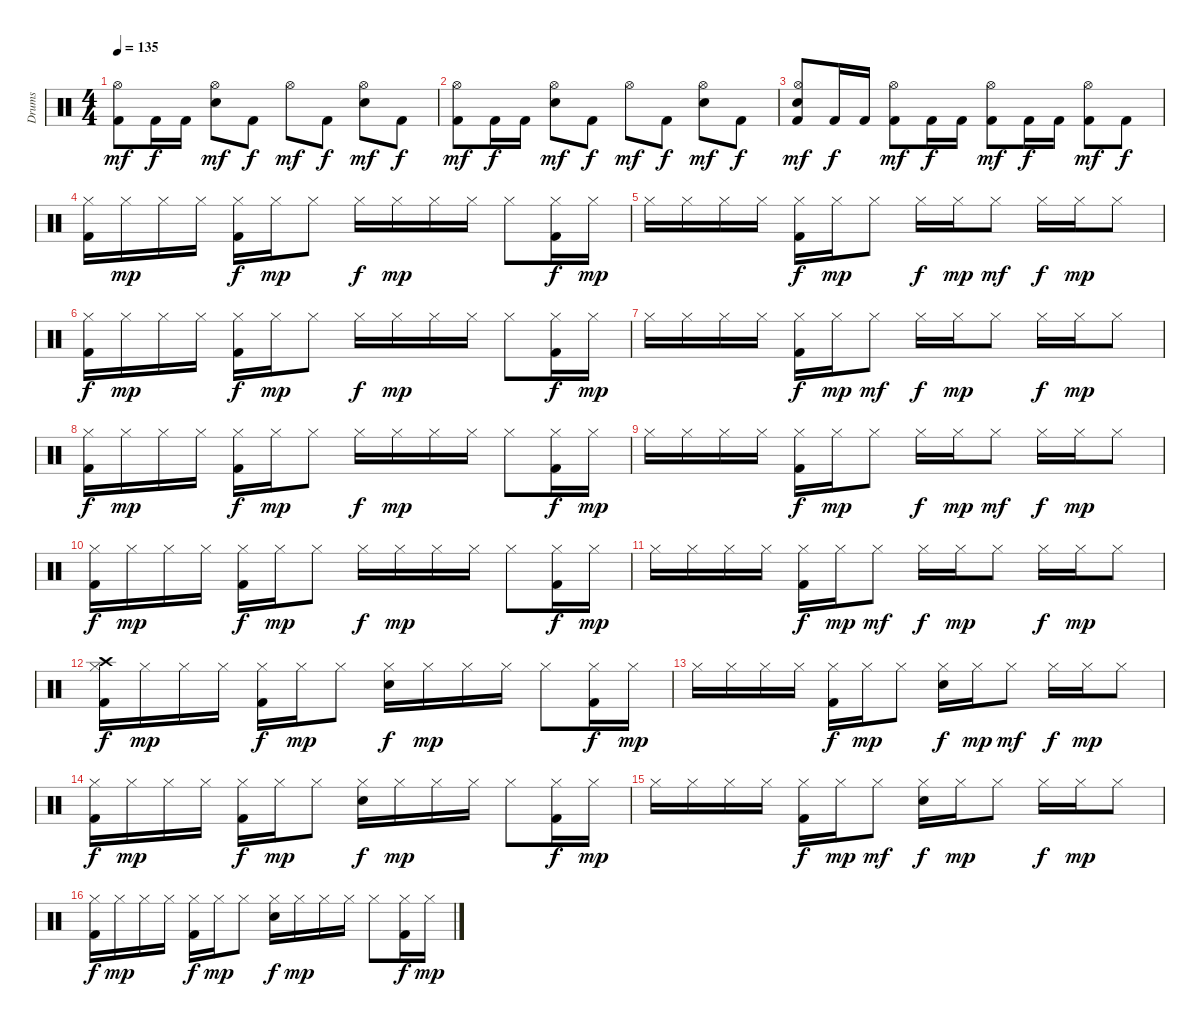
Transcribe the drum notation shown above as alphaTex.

\track ("Drums" "Drums") {instrument percussion}
\staff {score}
\articulation defaults
\ts (4 4)
\tempo 135
\clef neutral
\ks c
("Kick (hit) 2" "Hi-Hat (open)").8{dy mf} "Kick (hit) 2".16{dy f} "Kick (hit) 2".16 ("Electric Snare (hit)" "Hi-Hat (open)").8{dy mf} "Kick (hit) 2".8{dy f} "Hi-Hat (open)".8{dy mf} "Kick (hit) 2".8{dy f} ("Electric Snare (hit)" "Hi-Hat (open)").8{dy mf} "Kick (hit) 2".8{dy f} |
("Kick (hit) 2" "Hi-Hat (open)").8{dy mf} "Kick (hit) 2".16{dy f} "Kick (hit) 2".16 ("Electric Snare (hit)" "Hi-Hat (open)").8{dy mf} "Kick (hit) 2".8{dy f} "Hi-Hat (open)".8{dy mf} "Kick (hit) 2".8{dy f} ("Electric Snare (hit)" "Hi-Hat (open)").8{dy mf} "Kick (hit) 2".8{dy f} |
("Kick (hit) 2" "Electric Snare (hit)" "Hi-Hat (open)").8{dy mf} "Kick (hit) 2".16{dy f} "Kick (hit) 2".16 ("Kick (hit) 2" "Hi-Hat (open)").8{dy mf} "Kick (hit) 2".16{dy f} "Kick (hit) 2".16 ("Kick (hit) 2" "Hi-Hat (open)").8{dy mf} "Kick (hit) 2".16{dy f} "Kick (hit) 2".16 ("Kick (hit) 2" "Hi-Hat (open)").8{dy mf} "Kick (hit) 2".8{dy f} |
("Kick (hit) 2" "Hi-Hat (closed)").16 "Hi-Hat (closed)".16{dy mp} "Hi-Hat (closed)".16 "Hi-Hat (closed)".16 ("Kick (hit) 2" "Hi-Hat (closed)").16{dy f} "Hi-Hat (closed)".16{dy mp} "Hi-Hat (closed)".8 "Hi-Hat (closed)".16{dy f} "Hi-Hat (closed)".16{dy mp} "Hi-Hat (closed)".16 "Hi-Hat (closed)".16 "Hi-Hat (closed)".8 ("Kick (hit) 2" "Hi-Hat (closed)").16{dy f} "Hi-Hat (closed)".16{dy mp} |
"Hi-Hat (closed)".16 "Hi-Hat (closed)".16 "Hi-Hat (closed)".16 "Hi-Hat (closed)".16 ("Kick (hit) 2" "Hi-Hat (closed)").16{dy f} "Hi-Hat (closed)".16{dy mp} "Hi-Hat (closed)".8 "Hi-Hat (closed)".16{dy f} "Hi-Hat (closed)".16{dy mp} "Hi-Hat (closed)".8{dy mf} "Hi-Hat (closed)".16{dy f} "Hi-Hat (closed)".16{dy mp} "Hi-Hat (closed)".8 |
("Kick (hit) 2" "Hi-Hat (closed)").16{dy f} "Hi-Hat (closed)".16{dy mp} "Hi-Hat (closed)".16 "Hi-Hat (closed)".16 ("Kick (hit) 2" "Hi-Hat (closed)").16{dy f} "Hi-Hat (closed)".16{dy mp} "Hi-Hat (closed)".8 "Hi-Hat (closed)".16{dy f} "Hi-Hat (closed)".16{dy mp} "Hi-Hat (closed)".16 "Hi-Hat (closed)".16 "Hi-Hat (closed)".8 ("Kick (hit) 2" "Hi-Hat (closed)").16{dy f} "Hi-Hat (closed)".16{dy mp} |
"Hi-Hat (closed)".16 "Hi-Hat (closed)".16 "Hi-Hat (closed)".16 "Hi-Hat (closed)".16 ("Kick (hit) 2" "Hi-Hat (closed)").16{dy f} "Hi-Hat (closed)".16{dy mp} "Hi-Hat (closed)".8{dy mf} "Hi-Hat (closed)".16{dy f} "Hi-Hat (closed)".16{dy mp} "Hi-Hat (closed)".8 "Hi-Hat (closed)".16{dy f} "Hi-Hat (closed)".16{dy mp} "Hi-Hat (closed)".8 |
("Kick (hit) 2" "Hi-Hat (closed)").16{dy f} "Hi-Hat (closed)".16{dy mp} "Hi-Hat (closed)".16 "Hi-Hat (closed)".16 ("Kick (hit) 2" "Hi-Hat (closed)").16{dy f} "Hi-Hat (closed)".16{dy mp} "Hi-Hat (closed)".8 "Hi-Hat (closed)".16{dy f} "Hi-Hat (closed)".16{dy mp} "Hi-Hat (closed)".16 "Hi-Hat (closed)".16 "Hi-Hat (closed)".8 ("Kick (hit) 2" "Hi-Hat (closed)").16{dy f} "Hi-Hat (closed)".16{dy mp} |
"Hi-Hat (closed)".16 "Hi-Hat (closed)".16 "Hi-Hat (closed)".16 "Hi-Hat (closed)".16 ("Kick (hit) 2" "Hi-Hat (closed)").16{dy f} "Hi-Hat (closed)".16{dy mp} "Hi-Hat (closed)".8 "Hi-Hat (closed)".16{dy f} "Hi-Hat (closed)".16{dy mp} "Hi-Hat (closed)".8{dy mf} "Hi-Hat (closed)".16{dy f} "Hi-Hat (closed)".16{dy mp} "Hi-Hat (closed)".8 |
("Kick (hit) 2" "Hi-Hat (closed)").16{dy f} "Hi-Hat (closed)".16{dy mp} "Hi-Hat (closed)".16 "Hi-Hat (closed)".16 ("Kick (hit) 2" "Hi-Hat (closed)").16{dy f} "Hi-Hat (closed)".16{dy mp} "Hi-Hat (closed)".8 "Hi-Hat (closed)".16{dy f} "Hi-Hat (closed)".16{dy mp} "Hi-Hat (closed)".16 "Hi-Hat (closed)".16 "Hi-Hat (closed)".8 ("Kick (hit) 2" "Hi-Hat (closed)").16{dy f} "Hi-Hat (closed)".16{dy mp} |
"Hi-Hat (closed)".16 "Hi-Hat (closed)".16 "Hi-Hat (closed)".16 "Hi-Hat (closed)".16 ("Kick (hit) 2" "Hi-Hat (closed)").16{dy f} "Hi-Hat (closed)".16{dy mp} "Hi-Hat (closed)".8{dy mf} "Hi-Hat (closed)".16{dy f} "Hi-Hat (closed)".16{dy mp} "Hi-Hat (closed)".8 "Hi-Hat (closed)".16{dy f} "Hi-Hat (closed)".16{dy mp} "Hi-Hat (closed)".8 |
("Kick (hit) 2" "Hi-Hat (closed)" "Crash high (hit)").16{dy f} "Hi-Hat (closed)".16{dy mp} "Hi-Hat (closed)".16 "Hi-Hat (closed)".16 ("Kick (hit) 2" "Hi-Hat (closed)").16{dy f} "Hi-Hat (closed)".16{dy mp} "Hi-Hat (closed)".8 ("Electric Snare (hit)" "Hi-Hat (closed)").16{dy f} "Hi-Hat (closed)".16{dy mp} "Hi-Hat (closed)".16 "Hi-Hat (closed)".16 "Hi-Hat (closed)".8 ("Kick (hit) 2" "Hi-Hat (closed)").16{dy f} "Hi-Hat (closed)".16{dy mp} |
"Hi-Hat (closed)".16 "Hi-Hat (closed)".16 "Hi-Hat (closed)".16 "Hi-Hat (closed)".16 ("Kick (hit) 2" "Hi-Hat (closed)").16{dy f} "Hi-Hat (closed)".16{dy mp} "Hi-Hat (closed)".8 ("Electric Snare (hit)" "Hi-Hat (closed)").16{dy f} "Hi-Hat (closed)".16{dy mp} "Hi-Hat (closed)".8{dy mf} "Hi-Hat (closed)".16{dy f} "Hi-Hat (closed)".16{dy mp} "Hi-Hat (closed)".8 |
("Kick (hit) 2" "Hi-Hat (closed)").16{dy f} "Hi-Hat (closed)".16{dy mp} "Hi-Hat (closed)".16 "Hi-Hat (closed)".16 ("Kick (hit) 2" "Hi-Hat (closed)").16{dy f} "Hi-Hat (closed)".16{dy mp} "Hi-Hat (closed)".8 ("Electric Snare (hit)" "Hi-Hat (closed)").16{dy f} "Hi-Hat (closed)".16{dy mp} "Hi-Hat (closed)".16 "Hi-Hat (closed)".16 "Hi-Hat (closed)".8 ("Kick (hit) 2" "Hi-Hat (closed)").16{dy f} "Hi-Hat (closed)".16{dy mp} |
"Hi-Hat (closed)".16 "Hi-Hat (closed)".16 "Hi-Hat (closed)".16 "Hi-Hat (closed)".16 ("Kick (hit) 2" "Hi-Hat (closed)").16{dy f} "Hi-Hat (closed)".16{dy mp} "Hi-Hat (closed)".8{dy mf} ("Electric Snare (hit)" "Hi-Hat (closed)").16{dy f} "Hi-Hat (closed)".16{dy mp} "Hi-Hat (closed)".8 "Hi-Hat (closed)".16{dy f} "Hi-Hat (closed)".16{dy mp} "Hi-Hat (closed)".8 |
("Kick (hit) 2" "Hi-Hat (closed)").16{dy f} "Hi-Hat (closed)".16{dy mp} "Hi-Hat (closed)".16 "Hi-Hat (closed)".16 ("Kick (hit) 2" "Hi-Hat (closed)").16{dy f} "Hi-Hat (closed)".16{dy mp} "Hi-Hat (closed)".8 ("Electric Snare (hit)" "Hi-Hat (closed)").16{dy f} "Hi-Hat (closed)".16{dy mp} "Hi-Hat (closed)".16 "Hi-Hat (closed)".16 "Hi-Hat (closed)".8 ("Kick (hit) 2" "Hi-Hat (closed)").16{dy f} "Hi-Hat (closed)".16{dy mp}
